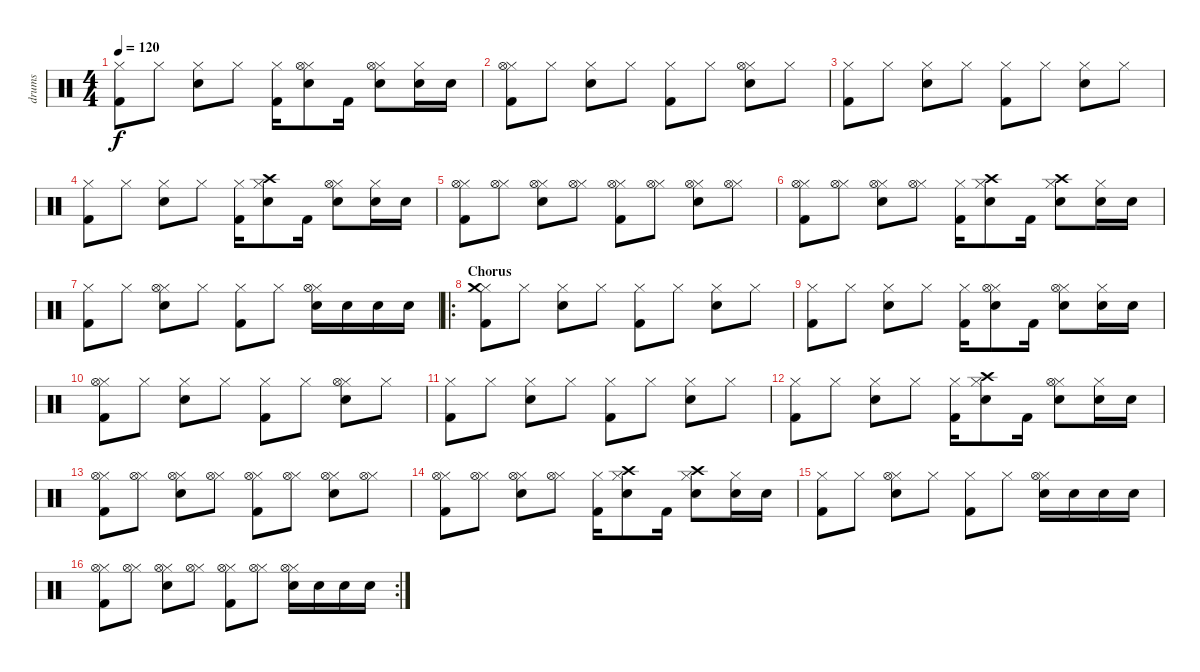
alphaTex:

\track ("drums" "drums") {instrument percussion}
\staff {score}
\articulation defaults
\ts (4 4)
\tempo 120
\clef neutral
\ks c
("Hi-Hat (closed)" "Kick (hit) 2").8{dy f} "Hi-Hat (closed)".8 ("Hi-Hat (closed)" "Electric Snare (hit)").8 "Hi-Hat (closed)".8 ("Hi-Hat (closed)" "Kick (hit) 2").16 ("Hi-Hat (closed)" "Hi-Hat (open)" "Electric Snare (hit)").8 "Kick (hit) 2".16 ("Hi-Hat (closed)" "Hi-Hat (open)" "Electric Snare (hit)").8 ("Hi-Hat (closed)" "Electric Snare (hit)").16 "Electric Snare (hit)".16 |
("Hi-Hat (closed)" "Hi-Hat (open)" "Kick (hit) 2").8 "Hi-Hat (closed)".8 ("Hi-Hat (closed)" "Electric Snare (hit)").8 "Hi-Hat (closed)".8 ("Hi-Hat (closed)" "Kick (hit) 2").8 "Hi-Hat (closed)".8 ("Hi-Hat (closed)" "Hi-Hat (open)" "Electric Snare (hit)").8 "Hi-Hat (closed)".8 |
("Hi-Hat (closed)" "Kick (hit) 2").8 "Hi-Hat (closed)".8 ("Hi-Hat (closed)" "Electric Snare (hit)").8 "Hi-Hat (closed)".8 ("Hi-Hat (closed)" "Kick (hit) 2").8 "Hi-Hat (closed)".8 ("Hi-Hat (closed)" "Electric Snare (hit)").8 "Hi-Hat (closed)".8 |
("Hi-Hat (closed)" "Kick (hit) 2").8 "Hi-Hat (closed)".8 ("Hi-Hat (closed)" "Electric Snare (hit)").8 "Hi-Hat (closed)".8 ("Hi-Hat (closed)" "Kick (hit) 2").16 ("Hi-Hat (closed)" "Crash high (hit)" "Electric Snare (hit)").8 "Kick (hit) 2".16 ("Hi-Hat (closed)" "Hi-Hat (open)" "Electric Snare (hit)").8 ("Hi-Hat (closed)" "Electric Snare (hit)").16 "Electric Snare (hit)".16 |
("Hi-Hat (closed)" "Hi-Hat (open)" "Kick (hit) 2").8 ("Hi-Hat (closed)" "Hi-Hat (open)").8 ("Hi-Hat (closed)" "Hi-Hat (open)" "Electric Snare (hit)").8 ("Hi-Hat (closed)" "Hi-Hat (open)").8 ("Hi-Hat (closed)" "Hi-Hat (open)" "Kick (hit) 2").8 ("Hi-Hat (closed)" "Hi-Hat (open)").8 ("Hi-Hat (closed)" "Hi-Hat (open)" "Electric Snare (hit)").8 ("Hi-Hat (closed)" "Hi-Hat (open)").8 |
("Hi-Hat (closed)" "Hi-Hat (open)" "Kick (hit) 2").8 ("Hi-Hat (closed)" "Hi-Hat (open)").8 ("Hi-Hat (closed)" "Hi-Hat (open)" "Electric Snare (hit)").8 ("Hi-Hat (closed)" "Hi-Hat (open)").8 ("Hi-Hat (closed)" "Kick (hit) 2").16 ("Hi-Hat (closed)" "Crash high (hit)" "Electric Snare (hit)").8 "Kick (hit) 2".16 ("Hi-Hat (closed)" "Crash high (hit)" "Electric Snare (hit)").8 ("Hi-Hat (closed)" "Electric Snare (hit)").16 "Electric Snare (hit)".16 |
("Hi-Hat (closed)" "Kick (hit) 2").8 "Hi-Hat (closed)".8 ("Hi-Hat (closed)" "Hi-Hat (open)" "Electric Snare (hit)").8 "Hi-Hat (closed)".8 ("Hi-Hat (closed)" "Kick (hit) 2").8 "Hi-Hat (closed)".8 ("Hi-Hat (closed)" "Hi-Hat (open)" "Electric Snare (hit)").16 "Electric Snare (hit)".16 "Electric Snare (hit)".16 "Electric Snare (hit)".16 |
\ro
\section ("" "Chorus")
("Hi-Hat (closed)" "Crash medium (hit)" "Kick (hit) 2").8 "Hi-Hat (closed)".8 ("Hi-Hat (closed)" "Electric Snare (hit)").8 "Hi-Hat (closed)".8 ("Hi-Hat (closed)" "Kick (hit) 2").8 "Hi-Hat (closed)".8 ("Hi-Hat (closed)" "Electric Snare (hit)").8 "Hi-Hat (closed)".8 |
("Hi-Hat (closed)" "Kick (hit) 2").8 "Hi-Hat (closed)".8 ("Hi-Hat (closed)" "Electric Snare (hit)").8 "Hi-Hat (closed)".8 ("Hi-Hat (closed)" "Kick (hit) 2").16 ("Hi-Hat (closed)" "Hi-Hat (open)" "Electric Snare (hit)").8 "Kick (hit) 2".16 ("Hi-Hat (closed)" "Hi-Hat (open)" "Electric Snare (hit)").8 ("Hi-Hat (closed)" "Electric Snare (hit)").16 "Electric Snare (hit)".16 |
("Hi-Hat (closed)" "Hi-Hat (open)" "Kick (hit) 2").8 "Hi-Hat (closed)".8 ("Hi-Hat (closed)" "Electric Snare (hit)").8 "Hi-Hat (closed)".8 ("Hi-Hat (closed)" "Kick (hit) 2").8 "Hi-Hat (closed)".8 ("Hi-Hat (closed)" "Hi-Hat (open)" "Electric Snare (hit)").8 "Hi-Hat (closed)".8 |
("Hi-Hat (closed)" "Kick (hit) 2").8 "Hi-Hat (closed)".8 ("Hi-Hat (closed)" "Electric Snare (hit)").8 "Hi-Hat (closed)".8 ("Hi-Hat (closed)" "Kick (hit) 2").8 "Hi-Hat (closed)".8 ("Hi-Hat (closed)" "Electric Snare (hit)").8 "Hi-Hat (closed)".8 |
("Hi-Hat (closed)" "Kick (hit) 2").8 "Hi-Hat (closed)".8 ("Hi-Hat (closed)" "Electric Snare (hit)").8 "Hi-Hat (closed)".8 ("Hi-Hat (closed)" "Kick (hit) 2").16 ("Hi-Hat (closed)" "Crash high (hit)" "Electric Snare (hit)").8 "Kick (hit) 2".16 ("Hi-Hat (closed)" "Hi-Hat (open)" "Electric Snare (hit)").8 ("Hi-Hat (closed)" "Electric Snare (hit)").16 "Electric Snare (hit)".16 |
("Hi-Hat (closed)" "Hi-Hat (open)" "Kick (hit) 2").8 ("Hi-Hat (closed)" "Hi-Hat (open)").8 ("Hi-Hat (closed)" "Hi-Hat (open)" "Electric Snare (hit)").8 ("Hi-Hat (closed)" "Hi-Hat (open)").8 ("Hi-Hat (closed)" "Hi-Hat (open)" "Kick (hit) 2").8 ("Hi-Hat (closed)" "Hi-Hat (open)").8 ("Hi-Hat (closed)" "Hi-Hat (open)" "Electric Snare (hit)").8 ("Hi-Hat (closed)" "Hi-Hat (open)").8 |
("Hi-Hat (closed)" "Hi-Hat (open)" "Kick (hit) 2").8 ("Hi-Hat (closed)" "Hi-Hat (open)").8 ("Hi-Hat (closed)" "Hi-Hat (open)" "Electric Snare (hit)").8 ("Hi-Hat (closed)" "Hi-Hat (open)").8 ("Hi-Hat (closed)" "Kick (hit) 2").16 ("Hi-Hat (closed)" "Crash high (hit)" "Electric Snare (hit)").8 "Kick (hit) 2".16 ("Hi-Hat (closed)" "Crash high (hit)" "Electric Snare (hit)").8 ("Hi-Hat (closed)" "Electric Snare (hit)").16 "Electric Snare (hit)".16 |
("Hi-Hat (closed)" "Kick (hit) 2").8 "Hi-Hat (closed)".8 ("Hi-Hat (closed)" "Hi-Hat (open)" "Electric Snare (hit)").8 "Hi-Hat (closed)".8 ("Hi-Hat (closed)" "Kick (hit) 2").8 "Hi-Hat (closed)".8 ("Hi-Hat (closed)" "Hi-Hat (open)" "Electric Snare (hit)").16 "Electric Snare (hit)".16 "Electric Snare (hit)".16 "Electric Snare (hit)".16 |
\rc 2
("Hi-Hat (closed)" "Hi-Hat (open)" "Kick (hit) 2").8 ("Hi-Hat (closed)" "Hi-Hat (open)").8 ("Hi-Hat (closed)" "Hi-Hat (open)" "Electric Snare (hit)").8 ("Hi-Hat (closed)" "Hi-Hat (open)").8 ("Hi-Hat (closed)" "Hi-Hat (open)" "Kick (hit) 2").8 ("Hi-Hat (closed)" "Hi-Hat (open)").8 ("Hi-Hat (closed)" "Hi-Hat (open)" "Electric Snare (hit)").16 "Electric Snare (hit)".16 "Electric Snare (hit)".16 "Electric Snare (hit)".16
